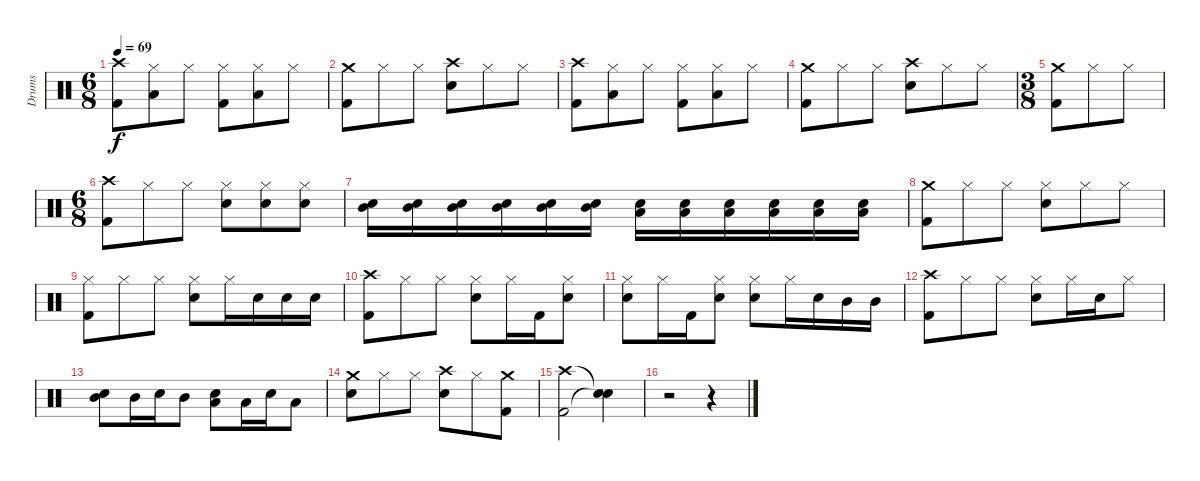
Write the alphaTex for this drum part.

\track ("Drums" "Drums") {instrument percussion}
\staff {score}
\articulation defaults
\ts (6 8)
\tempo 69
\clef neutral
\ks c
("Crash high (hit)" "Kick (hit) 2").8{dy f} ("Hi-Hat (closed)" "Low Tom (hit)").8 "Hi-Hat (closed)".8 ("Hi-Hat (closed)" "Kick (hit) 2").8 ("Hi-Hat (closed)" "Low Tom (hit)").8 "Hi-Hat (closed)".8 |
("Crash medium (hit)" "Kick (hit) 2").8 "Hi-Hat (closed)".8 "Hi-Hat (closed)".8 ("Crash high (hit)" "Snare (hit) 2").8 "Hi-Hat (closed)".8 "Hi-Hat (closed)".8 |
("Crash high (hit)" "Kick (hit) 2").8 ("Hi-Hat (closed)" "Low Tom (hit)").8 "Hi-Hat (closed)".8 ("Hi-Hat (closed)" "Kick (hit) 2").8 ("Hi-Hat (closed)" "Low Tom (hit)").8 "Hi-Hat (closed)".8 |
("Crash medium (hit)" "Kick (hit) 2").8 "Hi-Hat (closed)".8 "Hi-Hat (closed)".8 ("Crash high (hit)" "Snare (hit) 2").8 "Hi-Hat (closed)".8 "Hi-Hat (closed)".8 |
\ts (3 8)
("Crash medium (hit)" "Kick (hit) 2").8 "Hi-Hat (closed)".8 "Hi-Hat (closed)".8 |
\ts (6 8)
("Crash high (hit)" "Kick (hit) 2").8 "Hi-Hat (closed)".8 "Hi-Hat (closed)".8 ("Hi-Hat (closed)" "Snare (hit) 2").8 ("Hi-Hat (closed)" "Snare (hit) 2").8 ("Hi-Hat (closed)" "Snare (hit) 2").8 |
("Mid Tom (hit)" "Snare (hit) 2").16 ("Mid Tom (hit)" "Snare (hit) 2").16 ("Mid Tom (hit)" "Snare (hit) 2").16 ("Mid Tom (hit)" "Snare (hit) 2").16 ("Mid Tom (hit)" "Snare (hit) 2").16 ("Mid Tom (hit)" "Snare (hit) 2").16 ("Low Tom (hit)" "Snare (hit) 2").16 ("Low Tom (hit)" "Snare (hit) 2").16 ("Low Tom (hit)" "Snare (hit) 2").16 ("Low Tom (hit)" "Snare (hit) 2").16 ("Low Tom (hit)" "Snare (hit) 2").16 ("Low Tom (hit)" "Snare (hit) 2").16 |
("Crash medium (hit)" "Kick (hit) 2").8 "Hi-Hat (closed)".8 "Hi-Hat (closed)".8 ("Hi-Hat (closed)" "Snare (hit) 2").8 "Hi-Hat (closed)".8 "Hi-Hat (closed)".8 |
("Hi-Hat (closed)" "Kick (hit) 2").8 "Hi-Hat (closed)".8 "Hi-Hat (closed)".8 ("Hi-Hat (closed)" "Snare (hit) 2").8 "Hi-Hat (closed)".16 "Snare (hit) 2".16 "Snare (hit) 2".16 "Snare (hit) 2".16 |
("Crash high (hit)" "Kick (hit) 2").8 "Hi-Hat (closed)".8 "Hi-Hat (closed)".8 ("Hi-Hat (closed)" "Snare (hit) 2").8 "Hi-Hat (closed)".16 "Kick (hit) 2".16 ("Hi-Hat (closed)" "Snare (hit) 2").8 |
("Hi-Hat (closed)" "Snare (hit) 2").8 "Hi-Hat (closed)".16 "Kick (hit) 2".16 ("Hi-Hat (closed)" "Snare (hit) 2").8 ("Hi-Hat (closed)" "Snare (hit) 2").8 "Hi-Hat (closed)".16 "Snare (hit) 2".16 "Mid Tom (hit)".16 "Mid Tom (hit)".16 |
("Crash high (hit)" "Kick (hit) 2").8 "Hi-Hat (closed)".8 "Hi-Hat (closed)".8 ("Hi-Hat (closed)" "Snare (hit) 2").8 "Hi-Hat (closed)".16 "Snare (hit) 2".16 "Hi-Hat (closed)".8 |
("Snare (hit) 2" "Mid Tom (hit)").8 "Mid Tom (hit)".16 "Snare (hit) 2".16 "Mid Tom (hit)".8 ("Snare (hit) 2" "Low Tom (hit)").8 "Low Tom (hit)".16 "Snare (hit) 2".16 "Low Tom (hit)".8 |
("Crash medium (hit)" "Snare (hit) 2").8 "Hi-Hat (closed)".8 "Hi-Hat (closed)".8 ("Crash high (hit)" "Snare (hit) 2").8 "Hi-Hat (closed)".8 ("Crash medium (hit)" "Kick (hit) 2").8 |
("Crash high (hit)" "Kick (hit) 2").2 ("Snare (hit)"{t} "Snare (hit)"{t}).4 |
r.2 r.4
